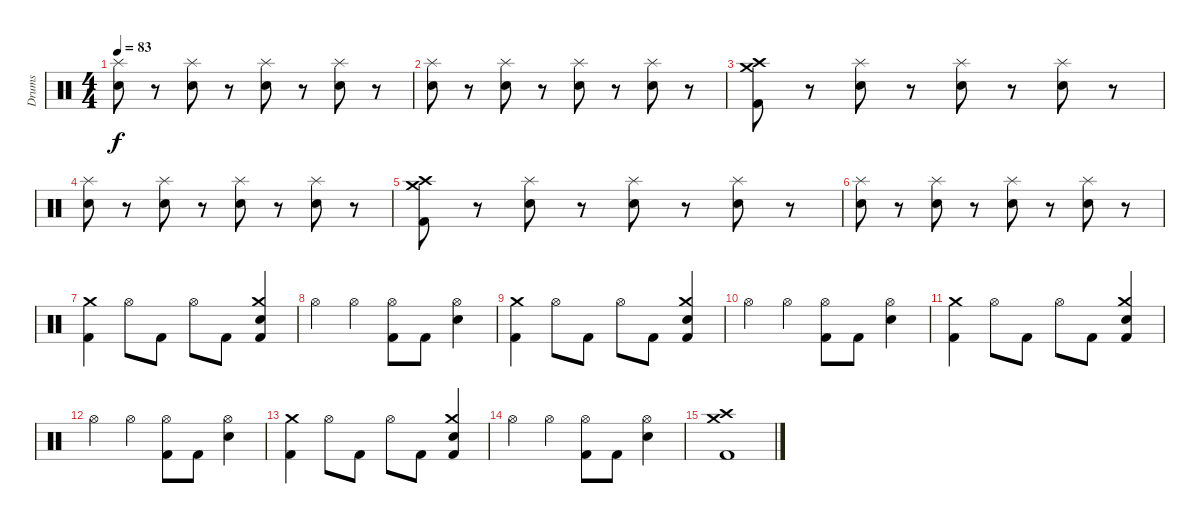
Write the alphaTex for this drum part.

\track ("Drums" "Drums") {instrument percussion}
\staff {score}
\articulation defaults
\ts (4 4)
\tempo 83
\clef neutral
\ks c
("Splash (hit)" "Snare (hit) 2").8{dy f} r.8 ("Splash (hit)" "Snare (hit) 2").8 r.8 ("Splash (hit)" "Snare (hit) 2").8 r.8 ("Splash (hit)" "Snare (hit) 2").8 r.8 |
("Splash (hit)" "Snare (hit) 2").8 r.8 ("Splash (hit)" "Snare (hit) 2").8 r.8 ("Splash (hit)" "Snare (hit) 2").8 r.8 ("Splash (hit)" "Snare (hit) 2").8 r.8 |
("Crash medium (hit)" "Crash high (hit)" "Kick (hit) 2").8 r.8 ("Splash (hit)" "Snare (hit) 2").8 r.8 ("Splash (hit)" "Snare (hit) 2").8 r.8 ("Splash (hit)" "Snare (hit) 2").8 r.8 |
("Splash (hit)" "Snare (hit) 2").8 r.8 ("Splash (hit)" "Snare (hit) 2").8 r.8 ("Splash (hit)" "Snare (hit) 2").8 r.8 ("Splash (hit)" "Snare (hit) 2").8 r.8 |
("Crash medium (hit)" "Crash high (hit)" "Kick (hit) 2").8 r.8 ("Splash (hit)" "Snare (hit) 2").8 r.8 ("Splash (hit)" "Snare (hit) 2").8 r.8 ("Splash (hit)" "Snare (hit) 2").8 r.8 |
("Splash (hit)" "Snare (hit) 2").8 r.8 ("Splash (hit)" "Snare (hit) 2").8 r.8 ("Splash (hit)" "Snare (hit) 2").8 r.8 ("Splash (hit)" "Snare (hit) 2").8 r.8 |
("Crash medium (hit)" "Kick (hit) 2").4 "Hi-Hat (open)".8 "Kick (hit) 2".8 "Hi-Hat (open)".8 "Kick (hit) 2".8 ("Crash medium (hit)" "Snare (hit) 2" "Kick (hit) 2").4 |
"Hi-Hat (open)".4 "Hi-Hat (open)".4 ("Hi-Hat (open)" "Kick (hit) 2").8 "Kick (hit) 2".8 ("Hi-Hat (open)" "Snare (hit) 2").4 |
("Crash medium (hit)" "Kick (hit) 2").4 "Hi-Hat (open)".8 "Kick (hit) 2".8 "Hi-Hat (open)".8 "Kick (hit) 2".8 ("Crash medium (hit)" "Snare (hit) 2" "Kick (hit) 2").4 |
"Hi-Hat (open)".4 "Hi-Hat (open)".4 ("Hi-Hat (open)" "Kick (hit) 2").8 "Kick (hit) 2".8 ("Hi-Hat (open)" "Snare (hit) 2").4 |
("Crash medium (hit)" "Kick (hit) 2").4 "Hi-Hat (open)".8 "Kick (hit) 2".8 "Hi-Hat (open)".8 "Kick (hit) 2".8 ("Crash medium (hit)" "Snare (hit) 2" "Kick (hit) 2").4 |
"Hi-Hat (open)".4 "Hi-Hat (open)".4 ("Hi-Hat (open)" "Kick (hit) 2").8 "Kick (hit) 2".8 ("Hi-Hat (open)" "Snare (hit) 2").4 |
("Crash medium (hit)" "Kick (hit) 2").4 "Hi-Hat (open)".8 "Kick (hit) 2".8 "Hi-Hat (open)".8 "Kick (hit) 2".8 ("Crash medium (hit)" "Snare (hit) 2" "Kick (hit) 2").4 |
"Hi-Hat (open)".4 "Hi-Hat (open)".4 ("Hi-Hat (open)" "Kick (hit) 2").8 "Kick (hit) 2".8 ("Hi-Hat (open)" "Snare (hit) 2").4 |
("Crash high (hit)" "Crash medium (hit)" "Kick (hit) 2").1
